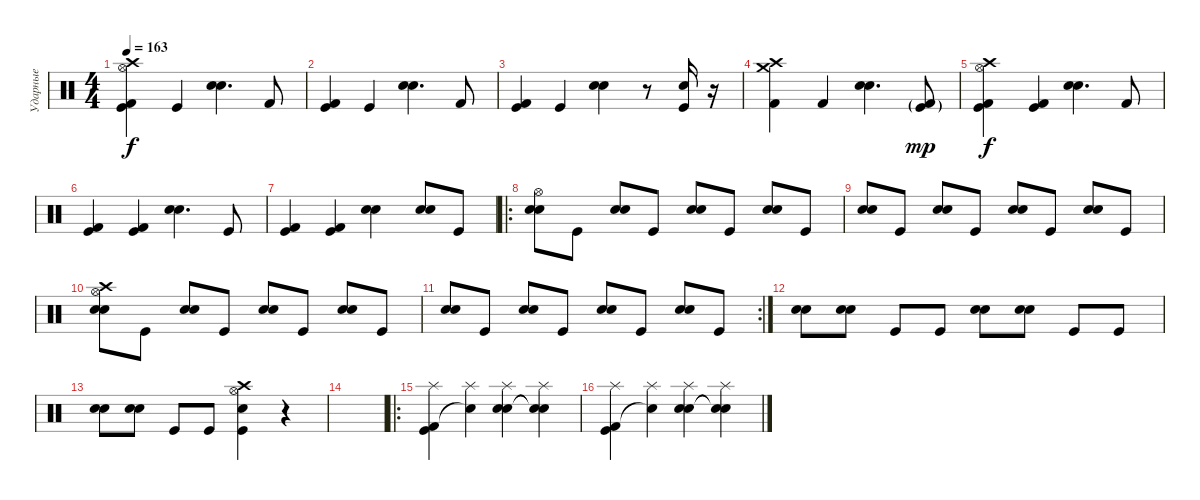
\track ("Ударные" "Ударные") {instrument percussion}
\staff {score}
\articulation defaults
\ts (4 4)
\tempo 163
\clef neutral
\ks c
("Hi-Hat (open)" "Crash high (hit)" "Kick (hit)" "Kick (hit) 2").4{dy f} "Kick (hit)".4 ("Electric Snare (hit)" "Snare (hit) 2").4{d} "Kick (hit) 2".8 |
("Kick (hit)" "Kick (hit) 2").4 "Kick (hit)".4 ("Electric Snare (hit)" "Snare (hit) 2").4{d} "Kick (hit) 2".8 |
("Kick (hit)" "Kick (hit) 2").4 "Kick (hit)".4 ("Electric Snare (hit)" "Snare (hit) 2").4 r.8 ("Snare (hit) 2" "Kick (hit)").16 r.16 |
("Crash medium (hit)" "Crash high (hit)" "Kick (hit) 2").4 "Kick (hit) 2".4 ("Electric Snare (hit)" "Snare (hit) 2").4{d} ("Kick (hit) 2"{g} "Kick (hit)"{g}).8{dy mp} |
("Hi-Hat (open)" "Crash high (hit)" "Kick (hit)" "Kick (hit) 2").4{dy f} ("Kick (hit)" "Kick (hit) 2").4 ("Electric Snare (hit)" "Snare (hit) 2").4{d} "Kick (hit) 2".8 |
("Kick (hit)" "Kick (hit) 2").4 ("Kick (hit)" "Kick (hit) 2").4 ("Electric Snare (hit)" "Snare (hit) 2").4{d} "Kick (hit)".8 |
("Kick (hit)" "Kick (hit) 2").4 ("Kick (hit)" "Kick (hit) 2").4 ("Electric Snare (hit)" "Snare (hit) 2").4 ("Electric Snare (hit)" "Snare (hit) 2").8 "Kick (hit)".8 |
\ro
("Hi-Hat (open)" "Electric Snare (hit)" "Snare (hit) 2").8 "Kick (hit)".8 ("Electric Snare (hit)" "Snare (hit) 2").8 "Kick (hit)".8 ("Electric Snare (hit)" "Snare (hit) 2").8 "Kick (hit)".8 ("Electric Snare (hit)" "Snare (hit) 2").8 "Kick (hit)".8 |
("Electric Snare (hit)" "Snare (hit) 2").8 "Kick (hit)".8 ("Electric Snare (hit)" "Snare (hit) 2").8 "Kick (hit)".8 ("Electric Snare (hit)" "Snare (hit) 2").8 "Kick (hit)".8 ("Electric Snare (hit)" "Snare (hit) 2").8 "Kick (hit)".8 |
("Crash high (hit)" "Hi-Hat (open)" "Electric Snare (hit)" "Snare (hit) 2").8 "Kick (hit)".8 ("Electric Snare (hit)" "Snare (hit) 2").8 "Kick (hit)".8 ("Electric Snare (hit)" "Snare (hit) 2").8 "Kick (hit)".8 ("Electric Snare (hit)" "Snare (hit) 2").8 "Kick (hit)".8 |
\rc 2
("Electric Snare (hit)" "Snare (hit) 2").8 "Kick (hit)".8 ("Electric Snare (hit)" "Snare (hit) 2").8 "Kick (hit)".8 ("Electric Snare (hit)" "Snare (hit) 2").8 "Kick (hit)".8 ("Electric Snare (hit)" "Snare (hit) 2").8 "Kick (hit)".8 |
("Electric Snare (hit)" "Snare (hit) 2").8 ("Electric Snare (hit)" "Snare (hit) 2").8 "Kick (hit)".8 "Kick (hit)".8 ("Electric Snare (hit)" "Snare (hit) 2").8 ("Electric Snare (hit)" "Snare (hit) 2").8 "Kick (hit)".8 "Kick (hit)".8 |
("Electric Snare (hit)" "Snare (hit) 2").8 ("Electric Snare (hit)" "Snare (hit) 2").8 "Kick (hit)".8 "Kick (hit)".8 ("Crash high (hit)" "Hi-Hat (open)" "Snare (hit) 2" "Kick (hit)").4 r.4 |
|
\ro
("Splash (hit)" "Kick (hit) 2" "Kick (hit)").4 ("Splash (hit)" "Snare (hit)"{t}).4 ("Splash (hit)" "Electric Snare (hit)" "Snare (hit) 2").4 ("Splash (hit)" "Snare (hit)"{t} "Snare (hit)"{t}).4 |
("Splash (hit)" "Kick (hit) 2" "Kick (hit)").4 ("Splash (hit)" "Snare (hit)"{t}).4 ("Splash (hit)" "Electric Snare (hit)" "Snare (hit) 2").4 ("Splash (hit)" "Snare (hit)"{t} "Snare (hit)"{t}).4
